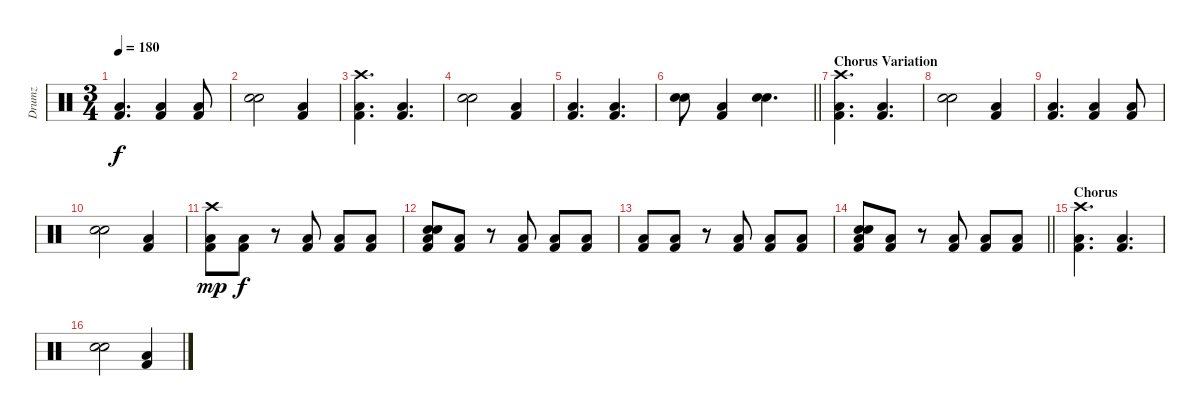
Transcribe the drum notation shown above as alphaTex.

\track ("Drumz" "Drumz") {instrument percussion}
\staff {score}
\articulation defaults
\ts (3 4)
\tempo 180
\clef neutral
\ks c
("Kick (hit) 2" "Low Floor Tom (hit)").4{d dy f} ("Kick (hit) 2" "Low Floor Tom (hit)").4 ("Kick (hit) 2" "Low Floor Tom (hit)").8 |
("Electric Snare (hit)" "Electric Snare (hit)").2 ("Kick (hit) 2" "Low Floor Tom (hit)").4 |
("Kick (hit) 2" "Low Floor Tom (hit)" "Crash high (hit)").4{d} ("Kick (hit) 2" "Low Floor Tom (hit)").4{d} |
("Electric Snare (hit)" "Electric Snare (hit)").2 ("Kick (hit) 2" "Low Floor Tom (hit)").4 |
("Kick (hit) 2" "Low Floor Tom (hit)").4{d} ("Kick (hit) 2" "Low Floor Tom (hit)").4{d} |
\barLineRight lightlight
("Electric Snare (hit)" "Electric Snare (hit)").8 ("Kick (hit) 2" "Low Floor Tom (hit)").4 ("Electric Snare (hit)" "Electric Snare (hit)").4{d} |
\section ("" "Chorus Variation")
("Kick (hit) 2" "Low Floor Tom (hit)" "Crash high (hit)").4{d} ("Kick (hit) 2" "Low Floor Tom (hit)").4{d} |
("Electric Snare (hit)" "Electric Snare (hit)").2 ("Kick (hit) 2" "Low Floor Tom (hit)").4 |
("Kick (hit) 2" "Low Floor Tom (hit)").4{d} ("Kick (hit) 2" "Low Floor Tom (hit)").4 ("Kick (hit) 2" "Low Floor Tom (hit)").8 |
("Electric Snare (hit)" "Electric Snare (hit)").2 ("Kick (hit) 2" "Low Floor Tom (hit)").4 |
("Kick (hit) 2" "Low Floor Tom (hit)" "Crash high (hit)").8{dy mp} ("Low Floor Tom (hit)" "Kick (hit) 2").8{dy f} r.8 ("Low Floor Tom (hit)" "Kick (hit) 2").8 ("Low Floor Tom (hit)" "Kick (hit) 2").8 ("Low Floor Tom (hit)" "Kick (hit) 2").8 |
("Low Floor Tom (hit)" "Kick (hit) 2" "Electric Snare (hit)" "Electric Snare (hit)").8 ("Low Floor Tom (hit)" "Kick (hit) 2").8 r.8 ("Low Floor Tom (hit)" "Kick (hit) 2").8 ("Low Floor Tom (hit)" "Kick (hit) 2").8 ("Low Floor Tom (hit)" "Kick (hit) 2").8 |
("Low Floor Tom (hit)" "Kick (hit) 2").8 ("Low Floor Tom (hit)" "Kick (hit) 2").8 r.8 ("Low Floor Tom (hit)" "Kick (hit) 2").8 ("Low Floor Tom (hit)" "Kick (hit) 2").8 ("Low Floor Tom (hit)" "Kick (hit) 2").8 |
\barLineRight lightlight
("Low Floor Tom (hit)" "Kick (hit) 2" "Electric Snare (hit)" "Electric Snare (hit)").8 ("Low Floor Tom (hit)" "Kick (hit) 2").8 r.8 ("Low Floor Tom (hit)" "Kick (hit) 2").8 ("Low Floor Tom (hit)" "Kick (hit) 2").8 ("Low Floor Tom (hit)" "Kick (hit) 2").8 |
\section ("" "Chorus")
("Kick (hit) 2" "Low Floor Tom (hit)" "Crash high (hit)").4{d} ("Kick (hit) 2" "Low Floor Tom (hit)").4{d} |
("Electric Snare (hit)" "Electric Snare (hit)").2 ("Kick (hit) 2" "Low Floor Tom (hit)").4
